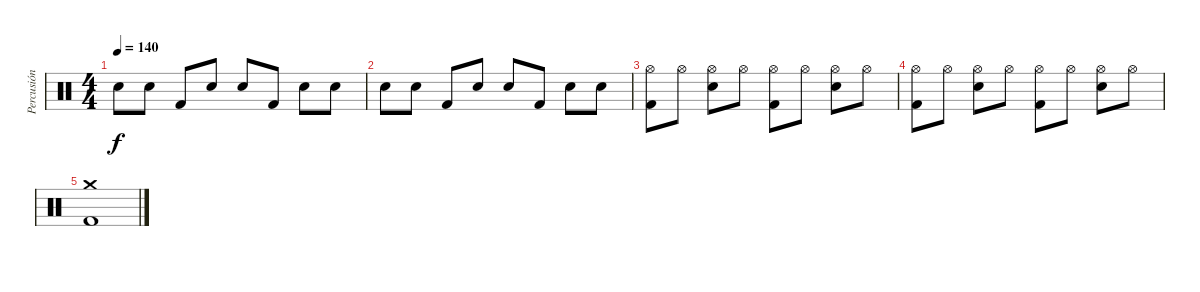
\track ("Percusión" "Percusión") {instrument percussion}
\staff {score}
\articulation defaults
\ts (4 4)
\tempo 140
\clef neutral
\ks c "Electric Snare (hit)".8{dy f} "Electric Snare (hit)".8 "Kick (hit) 2".8 "Electric Snare (hit)".8 "Electric Snare (hit)".8 "Kick (hit) 2".8 "Electric Snare (hit)".8 "Electric Snare (hit)".8
|
"Electric Snare (hit)".8 "Electric Snare (hit)".8 "Kick (hit) 2".8 "Electric Snare (hit)".8 "Electric Snare (hit)".8 "Kick (hit) 2".8 "Electric Snare (hit)".8 "Electric Snare (hit)".8 |
("Hi-Hat (open)" "Kick (hit) 2").8 "Hi-Hat (open)".8 ("Hi-Hat (open)" "Electric Snare (hit)").8 "Hi-Hat (open)".8 ("Hi-Hat (open)" "Kick (hit) 2").8 "Hi-Hat (open)".8 ("Hi-Hat (open)" "Electric Snare (hit)").8 "Hi-Hat (open)".8 |
("Hi-Hat (open)" "Kick (hit) 2").8 "Hi-Hat (open)".8 ("Hi-Hat (open)" "Electric Snare (hit)").8 "Hi-Hat (open)".8 ("Hi-Hat (open)" "Kick (hit) 2").8 "Hi-Hat (open)".8 ("Hi-Hat (open)" "Electric Snare (hit)").8 "Hi-Hat (open)".8 |
("Crash medium (hit)" "Kick (hit) 2").1
